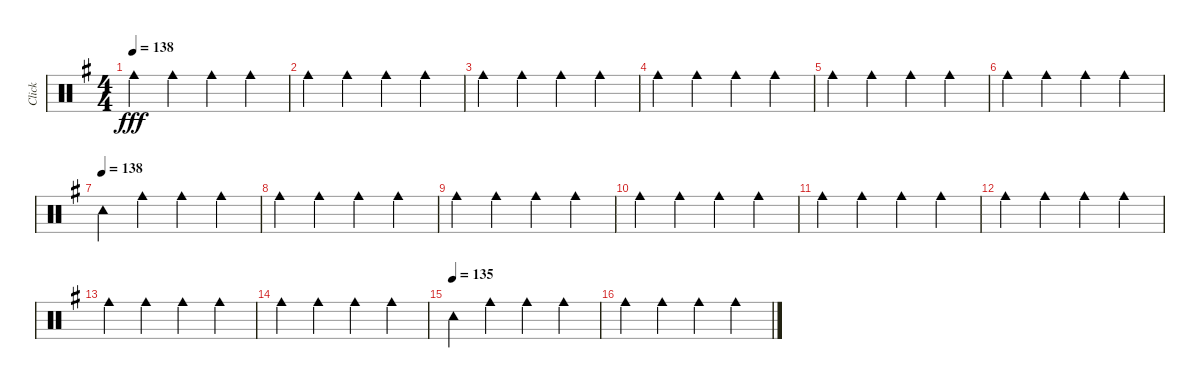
\track ("Click" "Click") {mute instrument percussion}
\staff {score}
\articulation defaults
\ts (4 4)
\tempo 138
\clef neutral
\ks g "Cowbell medium (hit)".4{dy fff} "Cowbell medium (hit)".4 "Cowbell medium (hit)".4 "Cowbell medium (hit)".4
|
"Cowbell medium (hit)".4 "Cowbell medium (hit)".4 "Cowbell medium (hit)".4 "Cowbell medium (hit)".4 |
"Cowbell medium (hit)".4 "Cowbell medium (hit)".4 "Cowbell medium (hit)".4 "Cowbell medium (hit)".4 |
"Cowbell medium (hit)".4 "Cowbell medium (hit)".4 "Cowbell medium (hit)".4 "Cowbell medium (hit)".4 |
"Cowbell medium (hit)".4 "Cowbell medium (hit)".4 "Cowbell medium (hit)".4 "Cowbell medium (hit)".4 |
"Cowbell medium (hit)".4 "Cowbell medium (hit)".4 "Cowbell medium (hit)".4 "Cowbell medium (hit)".4 |
\tempo (138)
"Tambourine (hit)".4 "Cowbell medium (hit)".4 "Cowbell medium (hit)".4 "Cowbell medium (hit)".4 |
"Cowbell medium (hit)".4 "Cowbell medium (hit)".4 "Cowbell medium (hit)".4 "Cowbell medium (hit)".4 |
"Cowbell medium (hit)".4 "Cowbell medium (hit)".4 "Cowbell medium (hit)".4 "Cowbell medium (hit)".4 |
"Cowbell medium (hit)".4 "Cowbell medium (hit)".4 "Cowbell medium (hit)".4 "Cowbell medium (hit)".4 |
"Cowbell medium (hit)".4 "Cowbell medium (hit)".4 "Cowbell medium (hit)".4 "Cowbell medium (hit)".4 |
"Cowbell medium (hit)".4 "Cowbell medium (hit)".4 "Cowbell medium (hit)".4 "Cowbell medium (hit)".4 |
"Cowbell medium (hit)".4 "Cowbell medium (hit)".4 "Cowbell medium (hit)".4 "Cowbell medium (hit)".4 |
"Cowbell medium (hit)".4 "Cowbell medium (hit)".4 "Cowbell medium (hit)".4 "Cowbell medium (hit)".4 |
\tempo (135)
"Tambourine (hit)".4 "Cowbell medium (hit)".4 "Cowbell medium (hit)".4 "Cowbell medium (hit)".4 |
"Cowbell medium (hit)".4 "Cowbell medium (hit)".4 "Cowbell medium (hit)".4 "Cowbell medium (hit)".4
